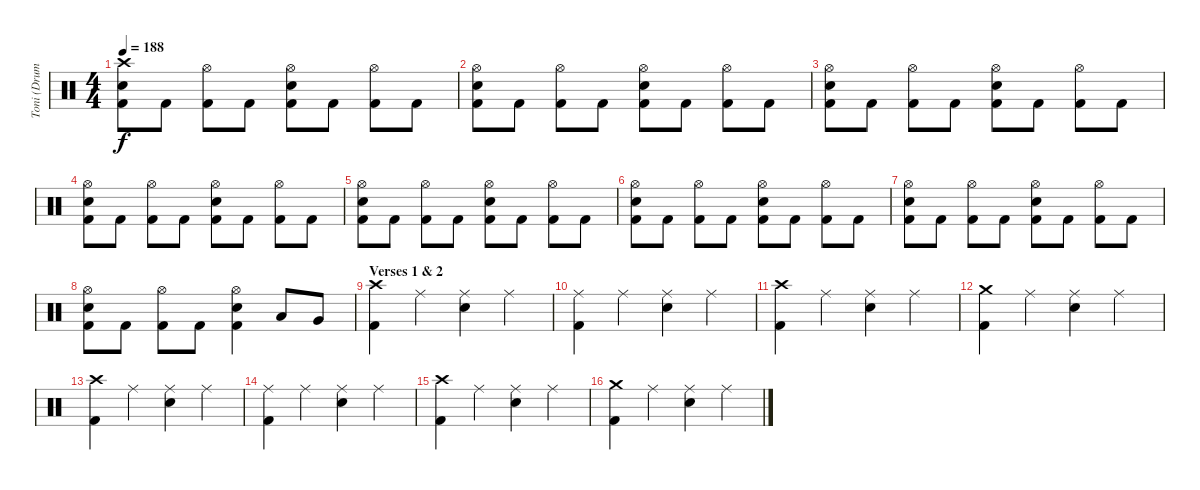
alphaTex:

\track ("Toni (Drums)" "Toni (Drum") {instrument percussion}
\staff {score}
\articulation defaults
\ts (4 4)
\tempo 188
\clef neutral
\ks c
("Crash high (hit)" "Electric Snare (hit)" "Kick (hit) 2").8{dy f} "Kick (hit) 2".8 ("Hi-Hat (open)" "Kick (hit) 2").8 "Kick (hit) 2".8 ("Hi-Hat (open)" "Electric Snare (hit)" "Kick (hit) 2").8 "Kick (hit) 2".8 ("Hi-Hat (open)" "Kick (hit) 2").8 "Kick (hit) 2".8 |
("Hi-Hat (open)" "Electric Snare (hit)" "Kick (hit) 2").8 "Kick (hit) 2".8 ("Hi-Hat (open)" "Kick (hit) 2").8 "Kick (hit) 2".8 ("Hi-Hat (open)" "Electric Snare (hit)" "Kick (hit) 2").8 "Kick (hit) 2".8 ("Hi-Hat (open)" "Kick (hit) 2").8 "Kick (hit) 2".8 |
("Hi-Hat (open)" "Electric Snare (hit)" "Kick (hit) 2").8 "Kick (hit) 2".8 ("Hi-Hat (open)" "Kick (hit) 2").8 "Kick (hit) 2".8 ("Hi-Hat (open)" "Electric Snare (hit)" "Kick (hit) 2").8 "Kick (hit) 2".8 ("Hi-Hat (open)" "Kick (hit) 2").8 "Kick (hit) 2".8 |
("Hi-Hat (open)" "Electric Snare (hit)" "Kick (hit) 2").8 "Kick (hit) 2".8 ("Hi-Hat (open)" "Kick (hit) 2").8 "Kick (hit) 2".8 ("Hi-Hat (open)" "Electric Snare (hit)" "Kick (hit) 2").8 "Kick (hit) 2".8 ("Hi-Hat (open)" "Kick (hit) 2").8 "Kick (hit) 2".8 |
("Hi-Hat (open)" "Electric Snare (hit)" "Kick (hit) 2").8 "Kick (hit) 2".8 ("Hi-Hat (open)" "Kick (hit) 2").8 "Kick (hit) 2".8 ("Hi-Hat (open)" "Electric Snare (hit)" "Kick (hit) 2").8 "Kick (hit) 2".8 ("Hi-Hat (open)" "Kick (hit) 2").8 "Kick (hit) 2".8 |
("Hi-Hat (open)" "Electric Snare (hit)" "Kick (hit) 2").8 "Kick (hit) 2".8 ("Hi-Hat (open)" "Kick (hit) 2").8 "Kick (hit) 2".8 ("Hi-Hat (open)" "Electric Snare (hit)" "Kick (hit) 2").8 "Kick (hit) 2".8 ("Hi-Hat (open)" "Kick (hit) 2").8 "Kick (hit) 2".8 |
("Hi-Hat (open)" "Electric Snare (hit)" "Kick (hit) 2").8 "Kick (hit) 2".8 ("Hi-Hat (open)" "Kick (hit) 2").8 "Kick (hit) 2".8 ("Hi-Hat (open)" "Electric Snare (hit)" "Kick (hit) 2").8 "Kick (hit) 2".8 ("Hi-Hat (open)" "Kick (hit) 2").8 "Kick (hit) 2".8 |
("Hi-Hat (open)" "Electric Snare (hit)" "Kick (hit) 2").8 "Kick (hit) 2".8 ("Hi-Hat (open)" "Kick (hit) 2").8 "Kick (hit) 2".8 ("Hi-Hat (open)" "Electric Snare (hit)" "Kick (hit) 2").4 "Low Tom (hit)".8 "Very Low Tom (hit)".8 |
\section ("" "Verses 1 & 2")
("Crash high (hit)" "Kick (hit) 2").4 "Ride (middle)".4 ("Ride (middle)" "Electric Snare (hit)").4 "Ride (middle)".4 |
("Ride (middle)" "Kick (hit) 2").4 "Ride (middle)".4 ("Ride (middle)" "Electric Snare (hit)").4 "Ride (middle)".4 |
("Crash high (hit)" "Kick (hit) 2").4 "Ride (middle)".4 ("Ride (middle)" "Electric Snare (hit)").4 "Ride (middle)".4 |
("Crash medium (hit)" "Kick (hit) 2").4 "Ride (middle)".4 ("Ride (middle)" "Electric Snare (hit)").4 "Ride (middle)".4 |
("Crash high (hit)" "Kick (hit) 2").4 "Ride (middle)".4 ("Ride (middle)" "Electric Snare (hit)").4 "Ride (middle)".4 |
("Ride (middle)" "Kick (hit) 2").4 "Ride (middle)".4 ("Ride (middle)" "Electric Snare (hit)").4 "Ride (middle)".4 |
("Crash high (hit)" "Kick (hit) 2").4 "Ride (middle)".4 ("Ride (middle)" "Electric Snare (hit)").4 "Ride (middle)".4 |
("Crash medium (hit)" "Kick (hit) 2").4 "Ride (middle)".4 ("Ride (middle)" "Electric Snare (hit)").4 "Ride (middle)".4
